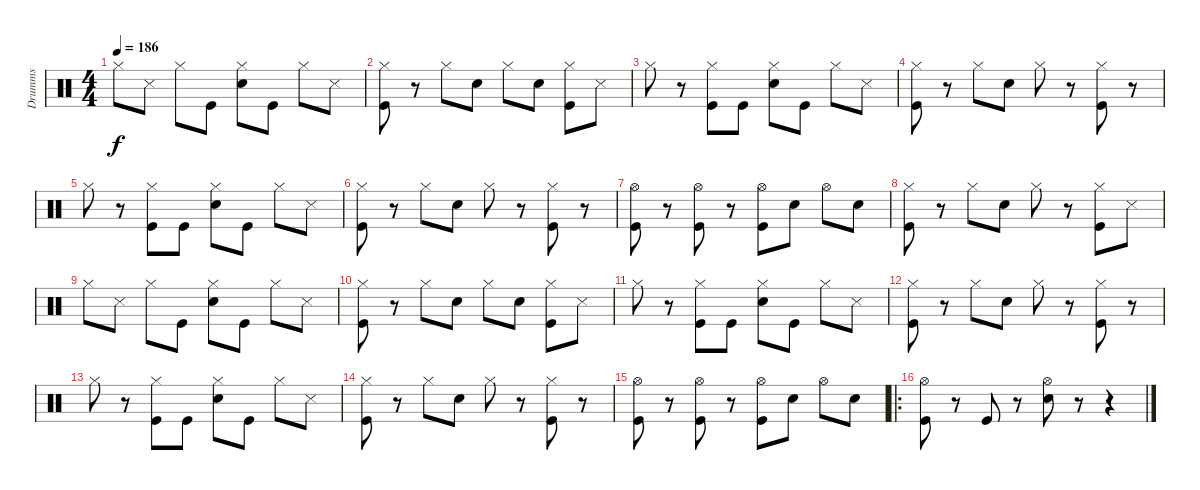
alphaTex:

\track ("Drumms" "Drumms") {instrument percussion}
\staff {score}
\articulation defaults
\ts (4 4)
\tempo 186
\clef neutral
\ks c "Hi-Hat (closed)".8{dy f} "Metronome (hit)".8 "Hi-Hat (closed)".8 "Kick (hit)".8
("Hi-Hat (closed)" "Snare (hit) 2").8 "Kick (hit)".8 "Hi-Hat (closed)".8 "Metronome (hit)".8 |
("Hi-Hat (closed)" "Kick (hit)").8 r.8 "Hi-Hat (closed)".8 "Snare (hit) 2".8 "Hi-Hat (closed)".8 "Snare (hit) 2".8 ("Hi-Hat (closed)" "Kick (hit)").8 "Metronome (hit)".8 |
"Hi-Hat (closed)".8 r.8 ("Hi-Hat (closed)" "Kick (hit)").8 "Kick (hit)".8 ("Hi-Hat (closed)" "Snare (hit) 2").8 "Kick (hit)".8 "Hi-Hat (closed)".8 "Metronome (hit)".8 |
("Hi-Hat (closed)" "Kick (hit)").8 r.8 "Hi-Hat (closed)".8 "Snare (hit) 2".8 "Hi-Hat (closed)".8 r.8 ("Hi-Hat (closed)" "Kick (hit)").8 r.8 |
"Hi-Hat (closed)".8 r.8 ("Hi-Hat (closed)" "Kick (hit)").8 "Kick (hit)".8 ("Hi-Hat (closed)" "Snare (hit) 2").8 "Kick (hit)".8 "Hi-Hat (closed)".8 "Metronome (hit)".8 |
("Hi-Hat (closed)" "Kick (hit)").8 r.8 "Hi-Hat (closed)".8 "Snare (hit) 2".8 "Hi-Hat (closed)".8 r.8 ("Hi-Hat (closed)" "Kick (hit)").8 r.8 |
("Hi-Hat (open)" "Kick (hit)").8 r.8 ("Hi-Hat (open)" "Kick (hit)").8 r.8 ("Hi-Hat (open)" "Kick (hit)").8 "Snare (hit) 2".8 "Hi-Hat (open)".8 "Snare (hit) 2".8 |
("Hi-Hat (closed)" "Kick (hit)").8 r.8 "Hi-Hat (closed)".8 "Snare (hit) 2".8 "Hi-Hat (closed)".8 r.8 ("Hi-Hat (closed)" "Kick (hit)").8 "Metronome (hit)".8 |
"Hi-Hat (closed)".8 "Metronome (hit)".8 "Hi-Hat (closed)".8 "Kick (hit)".8 ("Hi-Hat (closed)" "Snare (hit) 2").8 "Kick (hit)".8 "Hi-Hat (closed)".8 "Metronome (hit)".8 |
("Hi-Hat (closed)" "Kick (hit)").8 r.8 "Hi-Hat (closed)".8 "Snare (hit) 2".8 "Hi-Hat (closed)".8 "Snare (hit) 2".8 ("Hi-Hat (closed)" "Kick (hit)").8 "Metronome (hit)".8 |
"Hi-Hat (closed)".8 r.8 ("Hi-Hat (closed)" "Kick (hit)").8 "Kick (hit)".8 ("Hi-Hat (closed)" "Snare (hit) 2").8 "Kick (hit)".8 "Hi-Hat (closed)".8 "Metronome (hit)".8 |
("Hi-Hat (closed)" "Kick (hit)").8 r.8 "Hi-Hat (closed)".8 "Snare (hit) 2".8 "Hi-Hat (closed)".8 r.8 ("Hi-Hat (closed)" "Kick (hit)").8 r.8 |
"Hi-Hat (closed)".8 r.8 ("Hi-Hat (closed)" "Kick (hit)").8 "Kick (hit)".8 ("Hi-Hat (closed)" "Snare (hit) 2").8 "Kick (hit)".8 "Hi-Hat (closed)".8 "Metronome (hit)".8 |
("Hi-Hat (closed)" "Kick (hit)").8 r.8 "Hi-Hat (closed)".8 "Snare (hit) 2".8 "Hi-Hat (closed)".8 r.8 ("Hi-Hat (closed)" "Kick (hit)").8 r.8 |
("Hi-Hat (open)" "Kick (hit)").8 r.8 ("Hi-Hat (open)" "Kick (hit)").8 r.8 ("Hi-Hat (open)" "Kick (hit)").8 "Snare (hit) 2".8 "Hi-Hat (open)".8 "Snare (hit) 2".8 |
\ro
("Hi-Hat (open)" "Kick (hit)").8 r.8 "Kick (hit)".8 r.8 ("Hi-Hat (open)" "Snare (hit) 2").8 r.8 r.4
